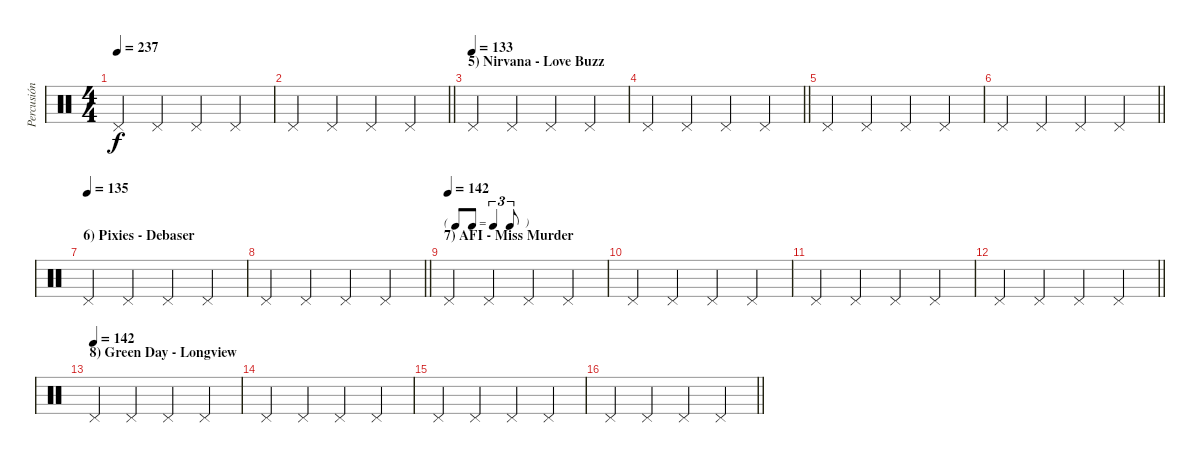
\track ("Percusión" "Percusión") {instrument percussion}
\staff {score}
\articulation defaults
\ts (4 4)
\tempo 237
\clef neutral
\ks c "Pedal Hi-Hat (hit)".4{dy f} "Pedal Hi-Hat (hit)".4 "Pedal Hi-Hat (hit)".4 "Pedal Hi-Hat (hit)".4
|
\barLineRight lightlight "Pedal Hi-Hat (hit)".4 "Pedal Hi-Hat (hit)".4 "Pedal Hi-Hat (hit)".4 "Pedal Hi-Hat (hit)".4
|
\section ("" "5) Nirvana - Love Buzz")
\tempo (133)
"Pedal Hi-Hat (hit)".4 "Pedal Hi-Hat (hit)".4 "Pedal Hi-Hat (hit)".4 "Pedal Hi-Hat (hit)".4 |
\barLineRight lightlight "Pedal Hi-Hat (hit)".4 "Pedal Hi-Hat (hit)".4 "Pedal Hi-Hat (hit)".4 "Pedal Hi-Hat (hit)".4
|
"Pedal Hi-Hat (hit)".4 "Pedal Hi-Hat (hit)".4 "Pedal Hi-Hat (hit)".4 "Pedal Hi-Hat (hit)".4 |
\barLineRight lightlight "Pedal Hi-Hat (hit)".4 "Pedal Hi-Hat (hit)".4 "Pedal Hi-Hat (hit)".4 "Pedal Hi-Hat (hit)".4
|
\section ("" "6) Pixies - Debaser")
\tempo (135)
"Pedal Hi-Hat (hit)".4 "Pedal Hi-Hat (hit)".4 "Pedal Hi-Hat (hit)".4 "Pedal Hi-Hat (hit)".4 |
\barLineRight lightlight "Pedal Hi-Hat (hit)".4 "Pedal Hi-Hat (hit)".4 "Pedal Hi-Hat (hit)".4 "Pedal Hi-Hat (hit)".4
|
\tf triplet8th
\section ("" "7) AFI - Miss Murder")
\tempo (142)
"Pedal Hi-Hat (hit)".4 "Pedal Hi-Hat (hit)".4 "Pedal Hi-Hat (hit)".4 "Pedal Hi-Hat (hit)".4 |
"Pedal Hi-Hat (hit)".4 "Pedal Hi-Hat (hit)".4 "Pedal Hi-Hat (hit)".4 "Pedal Hi-Hat (hit)".4 |
"Pedal Hi-Hat (hit)".4 "Pedal Hi-Hat (hit)".4 "Pedal Hi-Hat (hit)".4 "Pedal Hi-Hat (hit)".4 |
\barLineRight lightlight "Pedal Hi-Hat (hit)".4 "Pedal Hi-Hat (hit)".4 "Pedal Hi-Hat (hit)".4 "Pedal Hi-Hat (hit)".4
|
\section ("" "8) Green Day - Longview")
\tempo (142)
"Pedal Hi-Hat (hit)".4 "Pedal Hi-Hat (hit)".4 "Pedal Hi-Hat (hit)".4 "Pedal Hi-Hat (hit)".4 |
"Pedal Hi-Hat (hit)".4 "Pedal Hi-Hat (hit)".4 "Pedal Hi-Hat (hit)".4 "Pedal Hi-Hat (hit)".4 |
"Pedal Hi-Hat (hit)".4 "Pedal Hi-Hat (hit)".4 "Pedal Hi-Hat (hit)".4 "Pedal Hi-Hat (hit)".4 |
\barLineRight lightlight "Pedal Hi-Hat (hit)".4 "Pedal Hi-Hat (hit)".4 "Pedal Hi-Hat (hit)".4 "Pedal Hi-Hat (hit)".4
